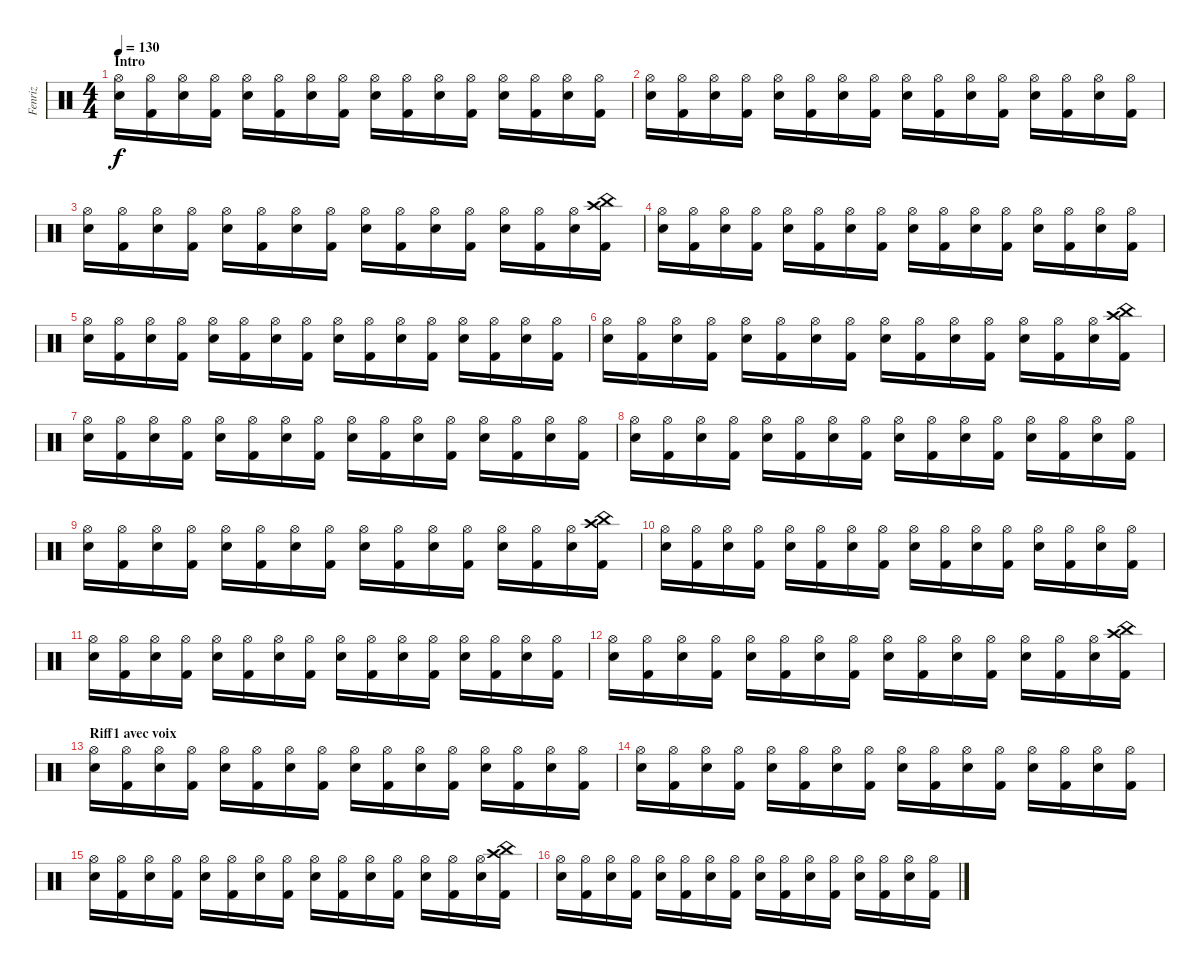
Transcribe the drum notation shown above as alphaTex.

\track ("Fenriz" "Fenriz") {instrument percussion}
\staff {score}
\articulation defaults
\ts (4 4)
\section ("" "Intro")
\tempo 130
\clef neutral
\ks c
("Hi-Hat (open)" "Electric Snare (hit)").16{dy f} ("Hi-Hat (open)" "Kick (hit) 2").16 ("Hi-Hat (open)" "Electric Snare (hit)").16 ("Hi-Hat (open)" "Kick (hit) 2").16 ("Hi-Hat (open)" "Electric Snare (hit)").16 ("Hi-Hat (open)" "Kick (hit) 2").16 ("Hi-Hat (open)" "Electric Snare (hit)").16 ("Hi-Hat (open)" "Kick (hit) 2").16 ("Hi-Hat (open)" "Electric Snare (hit)").16 ("Hi-Hat (open)" "Kick (hit) 2").16 ("Hi-Hat (open)" "Electric Snare (hit)").16 ("Hi-Hat (open)" "Kick (hit) 2").16 ("Hi-Hat (open)" "Electric Snare (hit)").16 ("Hi-Hat (open)" "Kick (hit) 2").16 ("Hi-Hat (open)" "Electric Snare (hit)").16 ("Hi-Hat (open)" "Kick (hit) 2").16 |
("Hi-Hat (open)" "Electric Snare (hit)").16 ("Hi-Hat (open)" "Kick (hit) 2").16 ("Hi-Hat (open)" "Electric Snare (hit)").16 ("Hi-Hat (open)" "Kick (hit) 2").16 ("Hi-Hat (open)" "Electric Snare (hit)").16 ("Hi-Hat (open)" "Kick (hit) 2").16 ("Hi-Hat (open)" "Electric Snare (hit)").16 ("Hi-Hat (open)" "Kick (hit) 2").16 ("Hi-Hat (open)" "Electric Snare (hit)").16 ("Hi-Hat (open)" "Kick (hit) 2").16 ("Hi-Hat (open)" "Electric Snare (hit)").16 ("Hi-Hat (open)" "Kick (hit) 2").16 ("Hi-Hat (open)" "Electric Snare (hit)").16 ("Hi-Hat (open)" "Kick (hit) 2").16 ("Hi-Hat (open)" "Electric Snare (hit)").16 ("Hi-Hat (open)" "Kick (hit) 2").16 |
("Hi-Hat (open)" "Electric Snare (hit)").16 ("Hi-Hat (open)" "Kick (hit) 2").16 ("Hi-Hat (open)" "Electric Snare (hit)").16 ("Hi-Hat (open)" "Kick (hit) 2").16 ("Hi-Hat (open)" "Electric Snare (hit)").16 ("Hi-Hat (open)" "Kick (hit) 2").16 ("Hi-Hat (open)" "Electric Snare (hit)").16 ("Hi-Hat (open)" "Kick (hit) 2").16 ("Hi-Hat (open)" "Electric Snare (hit)").16 ("Hi-Hat (open)" "Kick (hit) 2").16 ("Hi-Hat (open)" "Electric Snare (hit)").16 ("Hi-Hat (open)" "Kick (hit) 2").16 ("Hi-Hat (open)" "Electric Snare (hit)").16 ("Hi-Hat (open)" "Kick (hit) 2").16 ("Hi-Hat (open)" "Electric Snare (hit)").16 ("China (hit)" "Crash high (hit)" "Kick (hit) 2").16 |
("Hi-Hat (open)" "Electric Snare (hit)").16 ("Hi-Hat (open)" "Kick (hit) 2").16 ("Hi-Hat (open)" "Electric Snare (hit)").16 ("Hi-Hat (open)" "Kick (hit) 2").16 ("Hi-Hat (open)" "Electric Snare (hit)").16 ("Hi-Hat (open)" "Kick (hit) 2").16 ("Hi-Hat (open)" "Electric Snare (hit)").16 ("Hi-Hat (open)" "Kick (hit) 2").16 ("Hi-Hat (open)" "Electric Snare (hit)").16 ("Hi-Hat (open)" "Kick (hit) 2").16 ("Hi-Hat (open)" "Electric Snare (hit)").16 ("Hi-Hat (open)" "Kick (hit) 2").16 ("Hi-Hat (open)" "Electric Snare (hit)").16 ("Hi-Hat (open)" "Kick (hit) 2").16 ("Hi-Hat (open)" "Electric Snare (hit)").16 ("Hi-Hat (open)" "Kick (hit) 2").16 |
("Hi-Hat (open)" "Electric Snare (hit)").16 ("Hi-Hat (open)" "Kick (hit) 2").16 ("Hi-Hat (open)" "Electric Snare (hit)").16 ("Hi-Hat (open)" "Kick (hit) 2").16 ("Hi-Hat (open)" "Electric Snare (hit)").16 ("Hi-Hat (open)" "Kick (hit) 2").16 ("Hi-Hat (open)" "Electric Snare (hit)").16 ("Hi-Hat (open)" "Kick (hit) 2").16 ("Hi-Hat (open)" "Electric Snare (hit)").16 ("Hi-Hat (open)" "Kick (hit) 2").16 ("Hi-Hat (open)" "Electric Snare (hit)").16 ("Hi-Hat (open)" "Kick (hit) 2").16 ("Hi-Hat (open)" "Electric Snare (hit)").16 ("Hi-Hat (open)" "Kick (hit) 2").16 ("Hi-Hat (open)" "Electric Snare (hit)").16 ("Hi-Hat (open)" "Kick (hit) 2").16 |
("Hi-Hat (open)" "Electric Snare (hit)").16 ("Hi-Hat (open)" "Kick (hit) 2").16 ("Hi-Hat (open)" "Electric Snare (hit)").16 ("Hi-Hat (open)" "Kick (hit) 2").16 ("Hi-Hat (open)" "Electric Snare (hit)").16 ("Hi-Hat (open)" "Kick (hit) 2").16 ("Hi-Hat (open)" "Electric Snare (hit)").16 ("Hi-Hat (open)" "Kick (hit) 2").16 ("Hi-Hat (open)" "Electric Snare (hit)").16 ("Hi-Hat (open)" "Kick (hit) 2").16 ("Hi-Hat (open)" "Electric Snare (hit)").16 ("Hi-Hat (open)" "Kick (hit) 2").16 ("Hi-Hat (open)" "Electric Snare (hit)").16 ("Hi-Hat (open)" "Kick (hit) 2").16 ("Hi-Hat (open)" "Electric Snare (hit)").16 ("China (hit)" "Crash high (hit)" "Kick (hit) 2").16 |
("Hi-Hat (open)" "Electric Snare (hit)").16 ("Hi-Hat (open)" "Kick (hit) 2").16 ("Hi-Hat (open)" "Electric Snare (hit)").16 ("Hi-Hat (open)" "Kick (hit) 2").16 ("Hi-Hat (open)" "Electric Snare (hit)").16 ("Hi-Hat (open)" "Kick (hit) 2").16 ("Hi-Hat (open)" "Electric Snare (hit)").16 ("Hi-Hat (open)" "Kick (hit) 2").16 ("Hi-Hat (open)" "Electric Snare (hit)").16 ("Hi-Hat (open)" "Kick (hit) 2").16 ("Hi-Hat (open)" "Electric Snare (hit)").16 ("Hi-Hat (open)" "Kick (hit) 2").16 ("Hi-Hat (open)" "Electric Snare (hit)").16 ("Hi-Hat (open)" "Kick (hit) 2").16 ("Hi-Hat (open)" "Electric Snare (hit)").16 ("Hi-Hat (open)" "Kick (hit) 2").16 |
("Hi-Hat (open)" "Electric Snare (hit)").16 ("Hi-Hat (open)" "Kick (hit) 2").16 ("Hi-Hat (open)" "Electric Snare (hit)").16 ("Hi-Hat (open)" "Kick (hit) 2").16 ("Hi-Hat (open)" "Electric Snare (hit)").16 ("Hi-Hat (open)" "Kick (hit) 2").16 ("Hi-Hat (open)" "Electric Snare (hit)").16 ("Hi-Hat (open)" "Kick (hit) 2").16 ("Hi-Hat (open)" "Electric Snare (hit)").16 ("Hi-Hat (open)" "Kick (hit) 2").16 ("Hi-Hat (open)" "Electric Snare (hit)").16 ("Hi-Hat (open)" "Kick (hit) 2").16 ("Hi-Hat (open)" "Electric Snare (hit)").16 ("Hi-Hat (open)" "Kick (hit) 2").16 ("Hi-Hat (open)" "Electric Snare (hit)").16 ("Hi-Hat (open)" "Kick (hit) 2").16 |
("Hi-Hat (open)" "Electric Snare (hit)").16 ("Hi-Hat (open)" "Kick (hit) 2").16 ("Hi-Hat (open)" "Electric Snare (hit)").16 ("Hi-Hat (open)" "Kick (hit) 2").16 ("Hi-Hat (open)" "Electric Snare (hit)").16 ("Hi-Hat (open)" "Kick (hit) 2").16 ("Hi-Hat (open)" "Electric Snare (hit)").16 ("Hi-Hat (open)" "Kick (hit) 2").16 ("Hi-Hat (open)" "Electric Snare (hit)").16 ("Hi-Hat (open)" "Kick (hit) 2").16 ("Hi-Hat (open)" "Electric Snare (hit)").16 ("Hi-Hat (open)" "Kick (hit) 2").16 ("Hi-Hat (open)" "Electric Snare (hit)").16 ("Hi-Hat (open)" "Kick (hit) 2").16 ("Hi-Hat (open)" "Electric Snare (hit)").16 ("China (hit)" "Crash high (hit)" "Kick (hit) 2").16 |
("Hi-Hat (open)" "Electric Snare (hit)").16 ("Hi-Hat (open)" "Kick (hit) 2").16 ("Hi-Hat (open)" "Electric Snare (hit)").16 ("Hi-Hat (open)" "Kick (hit) 2").16 ("Hi-Hat (open)" "Electric Snare (hit)").16 ("Hi-Hat (open)" "Kick (hit) 2").16 ("Hi-Hat (open)" "Electric Snare (hit)").16 ("Hi-Hat (open)" "Kick (hit) 2").16 ("Hi-Hat (open)" "Electric Snare (hit)").16 ("Hi-Hat (open)" "Kick (hit) 2").16 ("Hi-Hat (open)" "Electric Snare (hit)").16 ("Hi-Hat (open)" "Kick (hit) 2").16 ("Hi-Hat (open)" "Electric Snare (hit)").16 ("Hi-Hat (open)" "Kick (hit) 2").16 ("Hi-Hat (open)" "Electric Snare (hit)").16 ("Hi-Hat (open)" "Kick (hit) 2").16 |
("Hi-Hat (open)" "Electric Snare (hit)").16 ("Hi-Hat (open)" "Kick (hit) 2").16 ("Hi-Hat (open)" "Electric Snare (hit)").16 ("Hi-Hat (open)" "Kick (hit) 2").16 ("Hi-Hat (open)" "Electric Snare (hit)").16 ("Hi-Hat (open)" "Kick (hit) 2").16 ("Hi-Hat (open)" "Electric Snare (hit)").16 ("Hi-Hat (open)" "Kick (hit) 2").16 ("Hi-Hat (open)" "Electric Snare (hit)").16 ("Hi-Hat (open)" "Kick (hit) 2").16 ("Hi-Hat (open)" "Electric Snare (hit)").16 ("Hi-Hat (open)" "Kick (hit) 2").16 ("Hi-Hat (open)" "Electric Snare (hit)").16 ("Hi-Hat (open)" "Kick (hit) 2").16 ("Hi-Hat (open)" "Electric Snare (hit)").16 ("Hi-Hat (open)" "Kick (hit) 2").16 |
("Hi-Hat (open)" "Electric Snare (hit)").16 ("Hi-Hat (open)" "Kick (hit) 2").16 ("Hi-Hat (open)" "Electric Snare (hit)").16 ("Hi-Hat (open)" "Kick (hit) 2").16 ("Hi-Hat (open)" "Electric Snare (hit)").16 ("Hi-Hat (open)" "Kick (hit) 2").16 ("Hi-Hat (open)" "Electric Snare (hit)").16 ("Hi-Hat (open)" "Kick (hit) 2").16 ("Hi-Hat (open)" "Electric Snare (hit)").16 ("Hi-Hat (open)" "Kick (hit) 2").16 ("Hi-Hat (open)" "Electric Snare (hit)").16 ("Hi-Hat (open)" "Kick (hit) 2").16 ("Hi-Hat (open)" "Electric Snare (hit)").16 ("Hi-Hat (open)" "Kick (hit) 2").16 ("Hi-Hat (open)" "Electric Snare (hit)").16 ("China (hit)" "Crash high (hit)" "Kick (hit) 2").16 |
\section ("" "Riff1 avec voix")
("Hi-Hat (open)" "Electric Snare (hit)").16 ("Hi-Hat (open)" "Kick (hit) 2").16 ("Hi-Hat (open)" "Electric Snare (hit)").16 ("Hi-Hat (open)" "Kick (hit) 2").16 ("Hi-Hat (open)" "Electric Snare (hit)").16 ("Hi-Hat (open)" "Kick (hit) 2").16 ("Hi-Hat (open)" "Electric Snare (hit)").16 ("Hi-Hat (open)" "Kick (hit) 2").16 ("Hi-Hat (open)" "Electric Snare (hit)").16 ("Hi-Hat (open)" "Kick (hit) 2").16 ("Hi-Hat (open)" "Electric Snare (hit)").16 ("Hi-Hat (open)" "Kick (hit) 2").16 ("Hi-Hat (open)" "Electric Snare (hit)").16 ("Hi-Hat (open)" "Kick (hit) 2").16 ("Hi-Hat (open)" "Electric Snare (hit)").16 ("Hi-Hat (open)" "Kick (hit) 2").16 |
("Hi-Hat (open)" "Electric Snare (hit)").16 ("Hi-Hat (open)" "Kick (hit) 2").16 ("Hi-Hat (open)" "Electric Snare (hit)").16 ("Hi-Hat (open)" "Kick (hit) 2").16 ("Hi-Hat (open)" "Electric Snare (hit)").16 ("Hi-Hat (open)" "Kick (hit) 2").16 ("Hi-Hat (open)" "Electric Snare (hit)").16 ("Hi-Hat (open)" "Kick (hit) 2").16 ("Hi-Hat (open)" "Electric Snare (hit)").16 ("Hi-Hat (open)" "Kick (hit) 2").16 ("Hi-Hat (open)" "Electric Snare (hit)").16 ("Hi-Hat (open)" "Kick (hit) 2").16 ("Hi-Hat (open)" "Electric Snare (hit)").16 ("Hi-Hat (open)" "Kick (hit) 2").16 ("Hi-Hat (open)" "Electric Snare (hit)").16 ("Hi-Hat (open)" "Kick (hit) 2").16 |
("Hi-Hat (open)" "Electric Snare (hit)").16 ("Hi-Hat (open)" "Kick (hit) 2").16 ("Hi-Hat (open)" "Electric Snare (hit)").16 ("Hi-Hat (open)" "Kick (hit) 2").16 ("Hi-Hat (open)" "Electric Snare (hit)").16 ("Hi-Hat (open)" "Kick (hit) 2").16 ("Hi-Hat (open)" "Electric Snare (hit)").16 ("Hi-Hat (open)" "Kick (hit) 2").16 ("Hi-Hat (open)" "Electric Snare (hit)").16 ("Hi-Hat (open)" "Kick (hit) 2").16 ("Hi-Hat (open)" "Electric Snare (hit)").16 ("Hi-Hat (open)" "Kick (hit) 2").16 ("Hi-Hat (open)" "Electric Snare (hit)").16 ("Hi-Hat (open)" "Kick (hit) 2").16 ("Hi-Hat (open)" "Electric Snare (hit)").16 ("China (hit)" "Crash high (hit)" "Kick (hit) 2").16 |
("Hi-Hat (open)" "Electric Snare (hit)").16 ("Hi-Hat (open)" "Kick (hit) 2").16 ("Hi-Hat (open)" "Electric Snare (hit)").16 ("Hi-Hat (open)" "Kick (hit) 2").16 ("Hi-Hat (open)" "Electric Snare (hit)").16 ("Hi-Hat (open)" "Kick (hit) 2").16 ("Hi-Hat (open)" "Electric Snare (hit)").16 ("Hi-Hat (open)" "Kick (hit) 2").16 ("Hi-Hat (open)" "Electric Snare (hit)").16 ("Hi-Hat (open)" "Kick (hit) 2").16 ("Hi-Hat (open)" "Electric Snare (hit)").16 ("Hi-Hat (open)" "Kick (hit) 2").16 ("Hi-Hat (open)" "Electric Snare (hit)").16 ("Hi-Hat (open)" "Kick (hit) 2").16 ("Hi-Hat (open)" "Electric Snare (hit)").16 ("Hi-Hat (open)" "Kick (hit) 2").16
